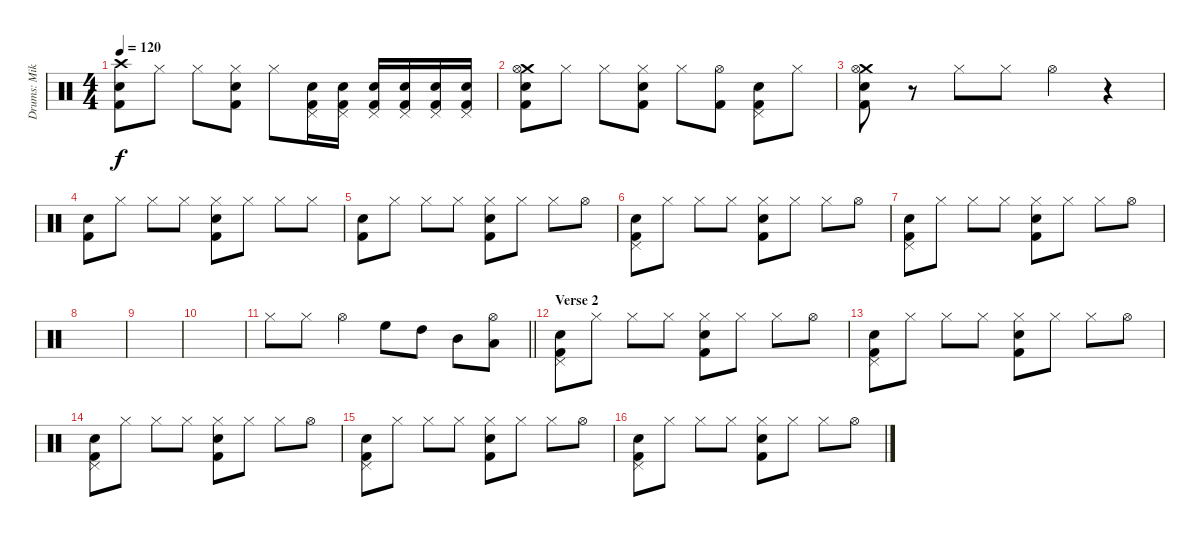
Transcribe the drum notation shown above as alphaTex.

\track ("Drums: Mike Botts" "Drums: Mik") {instrument percussion}
\staff {score}
\articulation defaults
\ts (4 4)
\tempo 120
\clef neutral
\ks c
("Crash high (hit)" "Snare (hit) 2" "Kick (hit) 2").8{dy f} "Hi-Hat (closed)".8 "Hi-Hat (closed)".8 ("Hi-Hat (closed)" "Snare (hit) 2" "Kick (hit) 2").8 "Hi-Hat (closed)".8 ("Pedal Hi-Hat (hit)" "Snare (hit) 2" "Kick (hit) 2").16 ("Pedal Hi-Hat (hit)" "Snare (hit) 2" "Kick (hit) 2").16 ("Pedal Hi-Hat (hit)" "Snare (hit) 2" "Kick (hit) 2").16 ("Pedal Hi-Hat (hit)" "Snare (hit) 2" "Kick (hit) 2").16 ("Pedal Hi-Hat (hit)" "Snare (hit) 2" "Kick (hit) 2").16 ("Pedal Hi-Hat (hit)" "Snare (hit) 2" "Kick (hit) 2").16 |
("Crash medium (hit)" "Hi-Hat (open)" "Snare (hit) 2" "Kick (hit) 2").8 "Hi-Hat (closed)".8 "Hi-Hat (closed)".8 ("Hi-Hat (closed)" "Snare (hit) 2" "Kick (hit) 2").8 "Hi-Hat (closed)".8 ("Hi-Hat (open)" "Kick (hit) 2").8 ("Pedal Hi-Hat (hit)" "Snare (hit) 2" "Kick (hit) 2").8 "Hi-Hat (closed)".8 |
("Crash medium (hit)" "Hi-Hat (open)" "Snare (hit) 2" "Kick (hit) 2").8 r.8 "Hi-Hat (closed)".8 "Hi-Hat (closed)".8 "Hi-Hat (open)".4 r.4 |
("Snare (hit) 2" "Kick (hit) 2").8 "Hi-Hat (closed)".8 "Hi-Hat (closed)".8 "Hi-Hat (closed)".8 ("Hi-Hat (closed)" "Electric Snare (hit)" "Kick (hit) 2").8 "Hi-Hat (closed)".8 "Hi-Hat (closed)".8 "Hi-Hat (closed)".8 |
("Snare (hit) 2" "Kick (hit) 2").8 "Hi-Hat (closed)".8 "Hi-Hat (closed)".8 "Hi-Hat (closed)".8 ("Hi-Hat (closed)" "Electric Snare (hit)" "Kick (hit) 2").8 "Hi-Hat (closed)".8 "Hi-Hat (closed)".8 "Hi-Hat (open)".8 |
("Pedal Hi-Hat (hit)" "Snare (hit) 2" "Kick (hit) 2").8 "Hi-Hat (closed)".8 "Hi-Hat (closed)".8 "Hi-Hat (closed)".8 ("Hi-Hat (closed)" "Electric Snare (hit)" "Kick (hit) 2").8 "Hi-Hat (closed)".8 "Hi-Hat (closed)".8 "Hi-Hat (open)".8 |
("Pedal Hi-Hat (hit)" "Snare (hit) 2" "Kick (hit) 2").8 "Hi-Hat (closed)".8 "Hi-Hat (closed)".8 "Hi-Hat (closed)".8 ("Hi-Hat (closed)" "Electric Snare (hit)" "Kick (hit) 2").8 "Hi-Hat (closed)".8 "Hi-Hat (closed)".8 "Hi-Hat (open)".8 |
|
|
|
\barLineRight lightlight "Hi-Hat (closed)".8 "Hi-Hat (closed)".8 "Hi-Hat (open)".4 "High Floor Tom (hit)".8 "High Tom (hit)".8 "Mid Tom (hit)".8
("Hi-Hat (open)" "Low Tom (hit)").8 |
\section ("" "Verse 2")
("Pedal Hi-Hat (hit)" "Snare (hit) 2" "Kick (hit) 2").8 "Hi-Hat (closed)".8 "Hi-Hat (closed)".8 "Hi-Hat (closed)".8 ("Hi-Hat (closed)" "Electric Snare (hit)" "Kick (hit) 2").8 "Hi-Hat (closed)".8 "Hi-Hat (closed)".8 "Hi-Hat (open)".8 |
("Pedal Hi-Hat (hit)" "Snare (hit) 2" "Kick (hit) 2").8 "Hi-Hat (closed)".8 "Hi-Hat (closed)".8 "Hi-Hat (closed)".8 ("Hi-Hat (closed)" "Electric Snare (hit)" "Kick (hit) 2").8 "Hi-Hat (closed)".8 "Hi-Hat (closed)".8 "Hi-Hat (open)".8 |
("Pedal Hi-Hat (hit)" "Snare (hit) 2" "Kick (hit) 2").8 "Hi-Hat (closed)".8 "Hi-Hat (closed)".8 "Hi-Hat (closed)".8 ("Hi-Hat (closed)" "Electric Snare (hit)" "Kick (hit) 2").8 "Hi-Hat (closed)".8 "Hi-Hat (closed)".8 "Hi-Hat (open)".8 |
("Pedal Hi-Hat (hit)" "Snare (hit) 2" "Kick (hit) 2").8 "Hi-Hat (closed)".8 "Hi-Hat (closed)".8 "Hi-Hat (closed)".8 ("Hi-Hat (closed)" "Electric Snare (hit)" "Kick (hit) 2").8 "Hi-Hat (closed)".8 "Hi-Hat (closed)".8 "Hi-Hat (open)".8 |
("Pedal Hi-Hat (hit)" "Snare (hit) 2" "Kick (hit) 2").8 "Hi-Hat (closed)".8 "Hi-Hat (closed)".8 "Hi-Hat (closed)".8 ("Hi-Hat (closed)" "Electric Snare (hit)" "Kick (hit) 2").8 "Hi-Hat (closed)".8 "Hi-Hat (closed)".8 "Hi-Hat (open)".8
